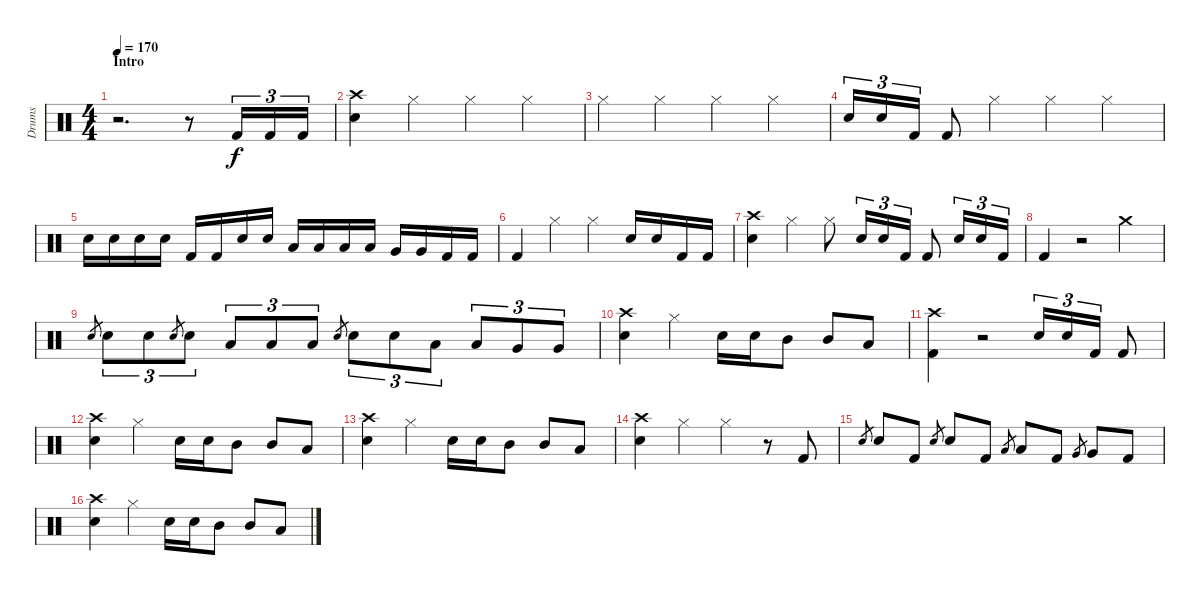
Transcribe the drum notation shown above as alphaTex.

\track ("Drums" "Drums") {instrument percussion}
\staff {score}
\articulation defaults
\ts (4 4)
\section ("" "Intro")
\tempo 170
\clef neutral
\ks c
r.2{d dy f} r.8 "Kick (hit) 2".16{tu (3 2)} "Kick (hit) 2".16{tu (3 2)} "Kick (hit) 2".16{tu (3 2)} |
("Crash high (hit)" "Electric Snare (hit)").4 "Hi-Hat (closed)".4 "Hi-Hat (closed)".4 "Hi-Hat (closed)".4 |
"Hi-Hat (closed)".4 "Hi-Hat (closed)".4 "Hi-Hat (closed)".4 "Hi-Hat (closed)".4 |
"Electric Snare (hit)".16{tu (3 2)} "Electric Snare (hit)".16{tu (3 2)} "Kick (hit) 2".16{tu (3 2)} "Kick (hit) 2".8 "Hi-Hat (closed)".4 "Hi-Hat (closed)".4 "Hi-Hat (closed)".4 |
"Electric Snare (hit)".16 "Electric Snare (hit)".16 "Electric Snare (hit)".16 "Electric Snare (hit)".16 "Kick (hit) 2".16 "Kick (hit) 2".16 "Electric Snare (hit)".16 "Electric Snare (hit)".16 "Low Tom (hit)".16 "Low Tom (hit)".16 "Low Tom (hit)".16 "Low Tom (hit)".16 "Very Low Tom (hit)".16 "Very Low Tom (hit)".16 "Kick (hit) 2".16 "Kick (hit) 2".16 |
"Kick (hit) 2".4 "Hi-Hat (closed)".4 "Hi-Hat (closed)".4 "Electric Snare (hit)".16 "Electric Snare (hit)".16 "Kick (hit) 2".16 "Kick (hit) 2".16 |
("Crash high (hit)" "Electric Snare (hit)").4 "Hi-Hat (closed)".4 "Hi-Hat (closed)".8 "Electric Snare (hit)".16{tu (3 2)} "Electric Snare (hit)".16{tu (3 2)} "Kick (hit) 2".16{tu (3 2)} "Kick (hit) 2".8 "Electric Snare (hit)".16{tu (3 2)} "Electric Snare (hit)".16{tu (3 2)} "Kick (hit) 2".16{tu (3 2)} |
"Kick (hit) 2".4 r.2 "Crash medium (hit)".4 |
"Electric Snare (hit)".8{gr} "Electric Snare (hit)".8{tu (3 2)} "Electric Snare (hit)".8{tu (3 2)} "Electric Snare (hit)".8{gr} "Electric Snare (hit)".8{tu (3 2)} "Low Tom (hit)".8{tu (3 2)} "Low Tom (hit)".8{tu (3 2)} "Low Tom (hit)".8{tu (3 2)} "Electric Snare (hit)".8{gr} "Electric Snare (hit)".8{tu (3 2)} "Electric Snare (hit)".8{tu (3 2)} "Low Tom (hit)".8{tu (3 2)} "Low Tom (hit)".8{tu (3 2)} "Very Low Tom (hit)".8{tu (3 2)} "Very Low Tom (hit)".8{tu (3 2)} |
("Crash high (hit)" "Electric Snare (hit)").4 "Hi-Hat (closed)".4 "Electric Snare (hit)".16 "Electric Snare (hit)".16 "Mid Tom (hit)".8 "Mid Tom (hit)".8 "Low Tom (hit)".8 |
("Crash high (hit)" "Kick (hit) 2").4 r.2 "Electric Snare (hit)".16{tu (3 2)} "Electric Snare (hit)".16{tu (3 2)} "Kick (hit) 2".16{tu (3 2)} "Kick (hit) 2".8 |
("Crash high (hit)" "Electric Snare (hit)").4 "Hi-Hat (closed)".4 "Electric Snare (hit)".16 "Electric Snare (hit)".16 "Mid Tom (hit)".8 "Mid Tom (hit)".8 "Low Tom (hit)".8 |
("Crash high (hit)" "Electric Snare (hit)").4 "Hi-Hat (closed)".4 "Electric Snare (hit)".16 "Electric Snare (hit)".16 "Mid Tom (hit)".8 "Mid Tom (hit)".8 "Low Tom (hit)".8 |
("Crash high (hit)" "Electric Snare (hit)").4 "Hi-Hat (closed)".4 "Hi-Hat (closed)".4 r.8 "Kick (hit) 2".8 |
"Electric Snare (hit)".8{gr} "Electric Snare (hit)".8 "Kick (hit) 2".8 "Electric Snare (hit)".8{gr} "Electric Snare (hit)".8 "Kick (hit) 2".8 "Low Tom (hit)".8{gr} "Low Tom (hit)".8 "Kick (hit) 2".8 "Very Low Tom (hit)".8{gr} "Very Low Tom (hit)".8 "Kick (hit) 2".8 |
("Crash high (hit)" "Electric Snare (hit)").4 "Hi-Hat (closed)".4 "Electric Snare (hit)".16 "Electric Snare (hit)".16 "Mid Tom (hit)".8 "Mid Tom (hit)".8 "Low Tom (hit)".8
